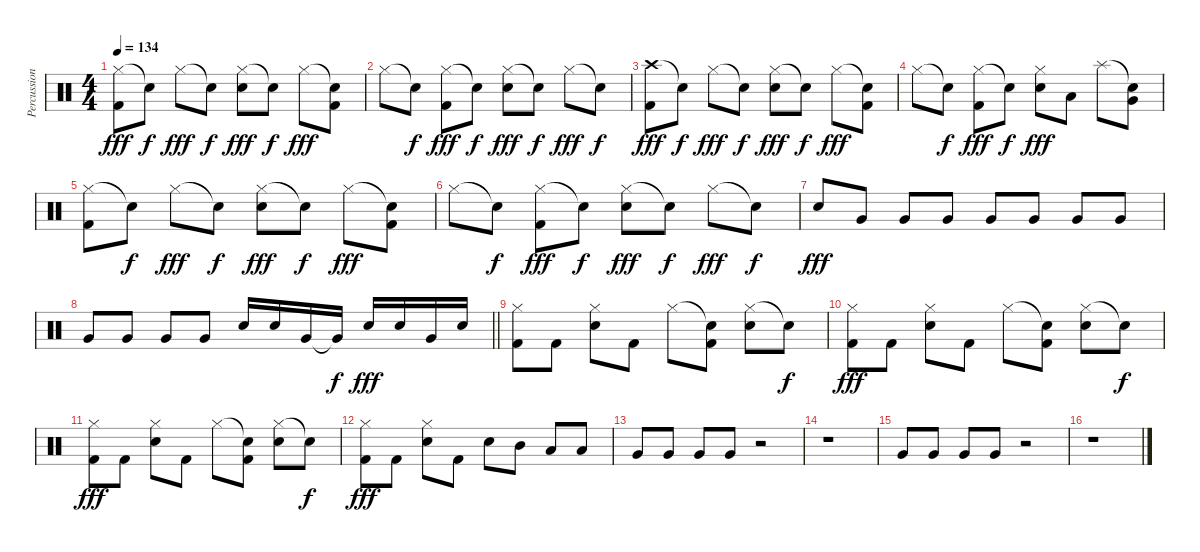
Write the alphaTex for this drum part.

\track ("Percussion" "Percussion") {instrument percussion}
\staff {score}
\articulation defaults
\ts (4 4)
\tempo 134
\clef neutral
\ks c
("Hi-Hat (closed)" "Kick (hit) 2").8{dy fff} "Snare (hit)"{t}.8{dy f} "Hi-Hat (closed)".8{dy fff} "Snare (hit)"{t}.8{dy f} ("Hi-Hat (closed)" "Snare (hit) 2").8{dy fff} "Snare (hit)"{t}.8{dy f} "Hi-Hat (closed)".8{dy fff} ("Snare (hit)"{t} "Kick (hit) 2").8 |
"Hi-Hat (closed)".8 "Snare (hit)"{t}.8{dy f} ("Hi-Hat (closed)" "Kick (hit) 2").8{dy fff} "Snare (hit)"{t}.8{dy f} ("Hi-Hat (closed)" "Snare (hit) 2").8{dy fff} "Snare (hit)"{t}.8{dy f} "Hi-Hat (closed)".8{dy fff} "Snare (hit)"{t}.8{dy f} |
("Crash high (hit)" "Kick (hit) 2").8{dy fff} "Snare (hit)"{t}.8{dy f} "Hi-Hat (closed)".8{dy fff} "Snare (hit)"{t}.8{dy f} ("Hi-Hat (closed)" "Snare (hit) 2").8{dy fff} "Snare (hit)"{t}.8{dy f} "Hi-Hat (closed)".8{dy fff} ("Snare (hit)"{t} "Kick (hit) 2").8 |
"Hi-Hat (closed)".8 "Snare (hit)"{t}.8{dy f} ("Hi-Hat (closed)" "Kick (hit) 2").8{dy fff} "Snare (hit)"{t}.8{dy f} ("Hi-Hat (closed)" "Snare (hit) 2").8{dy fff} "Low Tom (hit)".8 "Splash (hit)".8 ("Snare (hit)"{t} "Very Low Tom (hit)").8 |
("Hi-Hat (closed)" "Kick (hit) 2").8 "Snare (hit)"{t}.8{dy f} "Hi-Hat (closed)".8{dy fff} "Snare (hit)"{t}.8{dy f} ("Hi-Hat (closed)" "Snare (hit) 2").8{dy fff} "Snare (hit)"{t}.8{dy f} "Hi-Hat (closed)".8{dy fff} ("Snare (hit)"{t} "Kick (hit) 2").8 |
"Hi-Hat (closed)".8 "Snare (hit)"{t}.8{dy f} ("Hi-Hat (closed)" "Kick (hit) 2").8{dy fff} "Snare (hit)"{t}.8{dy f} ("Hi-Hat (closed)" "Snare (hit) 2").8{dy fff} "Snare (hit)"{t}.8{dy f} "Hi-Hat (closed)".8{dy fff} "Snare (hit)"{t}.8{dy f} |
"Snare (hit) 2".8{dy fff} "Very Low Tom (hit)".8 "Very Low Tom (hit)".8 "Very Low Tom (hit)".8 "Very Low Tom (hit)".8 "Very Low Tom (hit)".8 "Very Low Tom (hit)".8 "Very Low Tom (hit)".8 |
\barLineRight lightlight "Very Low Tom (hit)".8 "Very Low Tom (hit)".8 "Very Low Tom (hit)".8 "Very Low Tom (hit)".8 "Snare (hit) 2".16 "Snare (hit) 2".16 "Very Low Tom (hit)".16 "Very Low Tom (hit)"{t}.16{dy f} "Snare (hit) 2".16{dy fff} "Snare (hit) 2".16 "Very Low Tom (hit)".16 "Snare (hit) 2".16
|
("Hi-Hat (closed)" "Kick (hit) 2").8 "Kick (hit) 2".8 ("Hi-Hat (closed)" "Snare (hit) 2").8 "Kick (hit) 2".8 "Hi-Hat (closed)".8 ("Snare (hit)"{t} "Kick (hit) 2").8 ("Hi-Hat (closed)" "Snare (hit) 2").8 "Snare (hit)"{t}.8{dy f} |
("Hi-Hat (closed)" "Kick (hit) 2").8{dy fff} "Kick (hit) 2".8 ("Hi-Hat (closed)" "Snare (hit) 2").8 "Kick (hit) 2".8 "Hi-Hat (closed)".8 ("Snare (hit)"{t} "Kick (hit) 2").8 ("Hi-Hat (closed)" "Snare (hit) 2").8 "Snare (hit)"{t}.8{dy f} |
("Hi-Hat (closed)" "Kick (hit) 2").8{dy fff} "Kick (hit) 2".8 ("Hi-Hat (closed)" "Snare (hit) 2").8 "Kick (hit) 2".8 "Hi-Hat (closed)".8 ("Snare (hit)"{t} "Kick (hit) 2").8 ("Hi-Hat (closed)" "Snare (hit) 2").8 "Snare (hit)"{t}.8{dy f} |
("Hi-Hat (closed)" "Kick (hit) 2").8{dy fff} "Kick (hit) 2".8 ("Hi-Hat (closed)" "Snare (hit) 2").8 "Kick (hit) 2".8 "Snare (hit) 2".8 "Mid Tom (hit)".8 "Low Tom (hit)".8 "Low Tom (hit)".8 |
"Very Low Tom (hit)".8 "Very Low Tom (hit)".8 "Very Low Tom (hit)".8 "Very Low Tom (hit)".8 r.2 |
r.1 |
"Very Low Tom (hit)".8 "Very Low Tom (hit)".8 "Very Low Tom (hit)".8 "Very Low Tom (hit)".8 r.2 |
r.1
